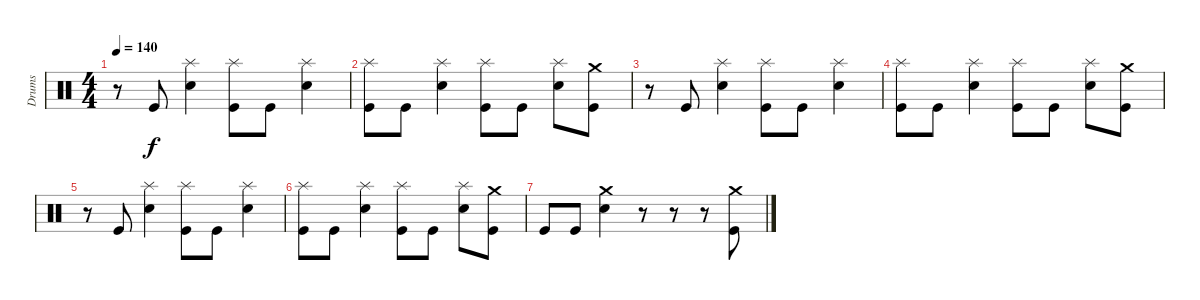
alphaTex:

\track ("Drums" "Drums") {instrument percussion}
\staff {score}
\articulation defaults
\ts (4 4)
\tempo 140
\clef neutral
\ks c
r.8{dy f} "Kick (hit)".8 ("Splash (hit)" "Electric Snare (hit)").4 ("Splash (hit)" "Kick (hit)").8 "Kick (hit)".8 ("Splash (hit)" "Electric Snare (hit)").4 |
("Splash (hit)" "Kick (hit)").8 "Kick (hit)".8 ("Splash (hit)" "Electric Snare (hit)").4 ("Splash (hit)" "Kick (hit)").8 "Kick (hit)".8 ("Splash (hit)" "Electric Snare (hit)").8 ("Crash medium (hit)" "Kick (hit)").8 |
r.8 "Kick (hit)".8 ("Splash (hit)" "Electric Snare (hit)").4 ("Splash (hit)" "Kick (hit)").8 "Kick (hit)".8 ("Splash (hit)" "Electric Snare (hit)").4 |
("Splash (hit)" "Kick (hit)").8 "Kick (hit)".8 ("Splash (hit)" "Electric Snare (hit)").4 ("Splash (hit)" "Kick (hit)").8 "Kick (hit)".8 ("Splash (hit)" "Electric Snare (hit)").8 ("Crash medium (hit)" "Kick (hit)").8 |
r.8 "Kick (hit)".8 ("Splash (hit)" "Electric Snare (hit)").4 ("Splash (hit)" "Kick (hit)").8 "Kick (hit)".8 ("Splash (hit)" "Electric Snare (hit)").4 |
("Splash (hit)" "Kick (hit)").8 "Kick (hit)".8 ("Splash (hit)" "Electric Snare (hit)").4 ("Splash (hit)" "Kick (hit)").8 "Kick (hit)".8 ("Splash (hit)" "Electric Snare (hit)").8 ("Crash medium (hit)" "Kick (hit)").8 |
"Kick (hit)".8 "Kick (hit)".8 ("Crash medium (hit)" "Electric Snare (hit)").4 r.8 r.8 r.8 ("Crash medium (hit)" "Kick (hit)").8
